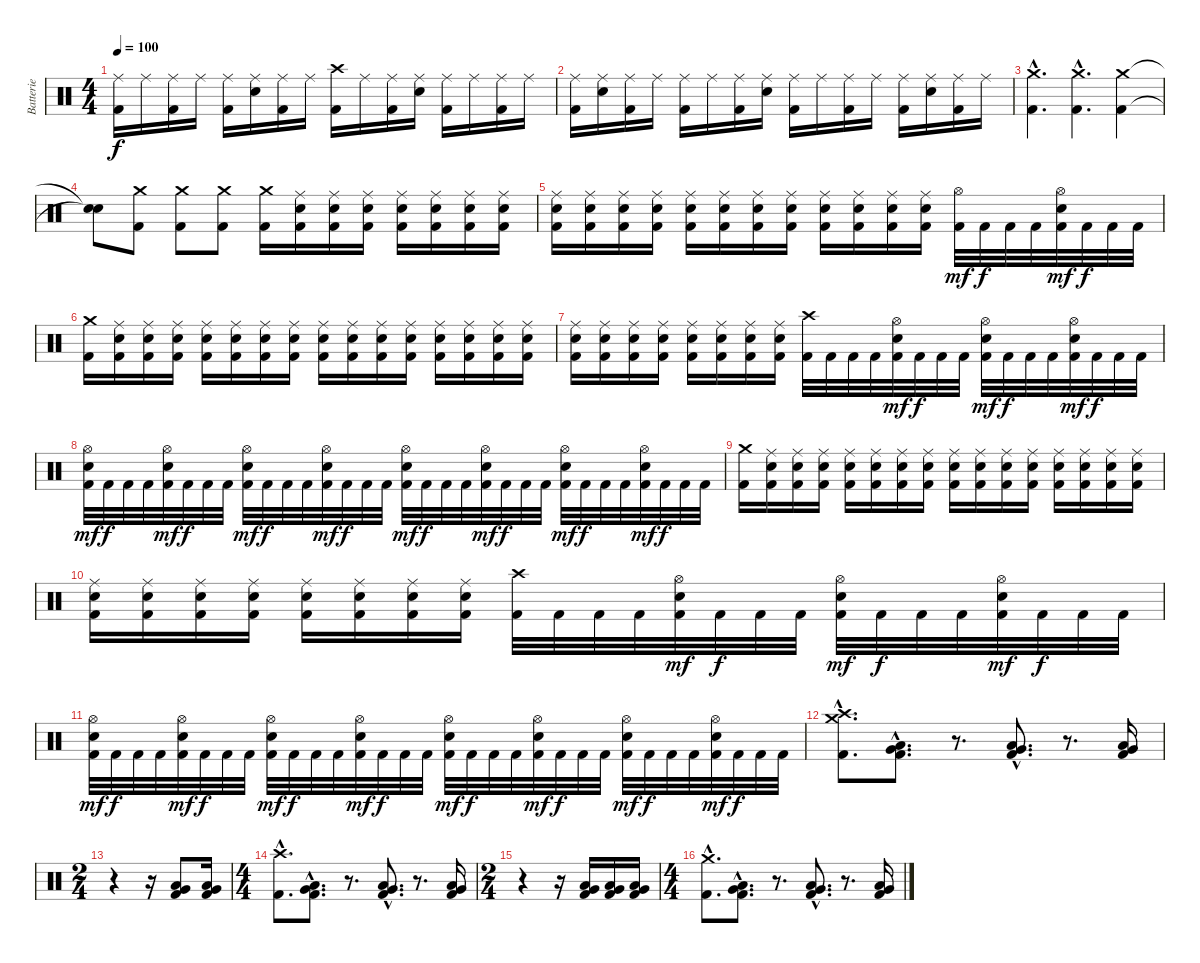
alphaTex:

\track ("Batterie" "Batterie") {instrument percussion}
\staff {score}
\articulation defaults
\ts (4 4)
\tempo 100
\clef neutral
\ks c
("Ride (middle)" "Kick (hit) 2").16{dy f} "Ride (middle)".16 ("Ride (middle)" "Kick (hit) 2").16 "Ride (middle)".16 ("Ride (middle)" "Kick (hit) 2").16 ("Ride (middle)" "Electric Snare (hit)").16 ("Ride (middle)" "Kick (hit) 2").16 "Ride (middle)".16 ("Crash high (hit)" "Kick (hit) 2").16 "Ride (middle)".16 ("Ride (middle)" "Kick (hit) 2").16 ("Ride (middle)" "Electric Snare (hit)").16 ("Ride (middle)" "Kick (hit) 2").16 "Ride (middle)".16 ("Ride (middle)" "Kick (hit) 2").16 "Ride (middle)".16 |
("Ride (middle)" "Kick (hit) 2").16 ("Ride (middle)" "Electric Snare (hit)").16 ("Ride (middle)" "Kick (hit) 2").16 "Ride (middle)".16 ("Ride (middle)" "Kick (hit) 2").16 "Ride (middle)".16 ("Ride (middle)" "Kick (hit) 2").16 ("Ride (middle)" "Electric Snare (hit)").16 ("Ride (middle)" "Kick (hit) 2").16 "Ride (middle)".16 ("Ride (middle)" "Kick (hit) 2").16 "Ride (middle)".16 ("Ride (middle)" "Kick (hit) 2").16 ("Ride (middle)" "Electric Snare (hit)").16 ("Ride (middle)" "Kick (hit) 2").16 "Ride (middle)".16 |
("Crash medium (hit)"{hac} "Kick (hit) 2"{hac}).4{d} ("Crash medium (hit)"{hac} "Kick (hit) 2"{hac}).4{d} ("Crash medium (hit)" "Kick (hit) 2").4 |
("Snare (hit)"{t} "Snare (hit)"{t}).8 ("Crash medium (hit)" "Kick (hit) 2").8 ("Crash medium (hit)" "Kick (hit) 2").8 ("Crash medium (hit)" "Kick (hit) 2").8 ("Crash medium (hit)" "Kick (hit) 2").16 ("Ride (middle)" "Electric Snare (hit)" "Kick (hit) 2").16 ("Ride (middle)" "Electric Snare (hit)" "Kick (hit) 2").16 ("Ride (middle)" "Electric Snare (hit)" "Kick (hit) 2").16 ("Ride (middle)" "Electric Snare (hit)" "Kick (hit) 2").16 ("Ride (middle)" "Electric Snare (hit)" "Kick (hit) 2").16 ("Ride (middle)" "Electric Snare (hit)" "Kick (hit) 2").16 ("Ride (middle)" "Electric Snare (hit)" "Kick (hit) 2").16 |
("Ride (middle)" "Electric Snare (hit)" "Kick (hit) 2").16 ("Ride (middle)" "Electric Snare (hit)" "Kick (hit) 2").16 ("Ride (middle)" "Electric Snare (hit)" "Kick (hit) 2").16 ("Ride (middle)" "Electric Snare (hit)" "Kick (hit) 2").16 ("Ride (middle)" "Electric Snare (hit)" "Kick (hit) 2").16 ("Ride (middle)" "Electric Snare (hit)" "Kick (hit) 2").16 ("Ride (middle)" "Electric Snare (hit)" "Kick (hit) 2").16 ("Ride (middle)" "Electric Snare (hit)" "Kick (hit) 2").16 ("Ride (middle)" "Electric Snare (hit)" "Kick (hit) 2").16 ("Ride (middle)" "Electric Snare (hit)" "Kick (hit) 2").16 ("Ride (middle)" "Electric Snare (hit)" "Kick (hit) 2").16 ("Ride (middle)" "Electric Snare (hit)" "Kick (hit) 2").16 ("Hi-Hat (open)" "Kick (hit) 2").32{dy mf} "Kick (hit) 2".32{dy f} "Kick (hit) 2".32 "Kick (hit) 2".32 ("Hi-Hat (open)" "Electric Snare (hit)" "Kick (hit) 2").32{dy mf} "Kick (hit) 2".32{dy f} "Kick (hit) 2".32 "Kick (hit) 2".32 |
("Crash medium (hit)" "Kick (hit) 2").16 ("Ride (middle)" "Electric Snare (hit)" "Kick (hit) 2").16 ("Ride (middle)" "Electric Snare (hit)" "Kick (hit) 2").16 ("Ride (middle)" "Electric Snare (hit)" "Kick (hit) 2").16 ("Ride (middle)" "Electric Snare (hit)" "Kick (hit) 2").16 ("Ride (middle)" "Electric Snare (hit)" "Kick (hit) 2").16 ("Ride (middle)" "Electric Snare (hit)" "Kick (hit) 2").16 ("Ride (middle)" "Electric Snare (hit)" "Kick (hit) 2").16 ("Ride (middle)" "Electric Snare (hit)" "Kick (hit) 2").16 ("Ride (middle)" "Electric Snare (hit)" "Kick (hit) 2").16 ("Ride (middle)" "Electric Snare (hit)" "Kick (hit) 2").16 ("Ride (middle)" "Electric Snare (hit)" "Kick (hit) 2").16 ("Ride (middle)" "Electric Snare (hit)" "Kick (hit) 2").16 ("Ride (middle)" "Electric Snare (hit)" "Kick (hit) 2").16 ("Ride (middle)" "Electric Snare (hit)" "Kick (hit) 2").16 ("Ride (middle)" "Electric Snare (hit)" "Kick (hit) 2").16 |
("Ride (middle)" "Electric Snare (hit)" "Kick (hit) 2").16 ("Ride (middle)" "Electric Snare (hit)" "Kick (hit) 2").16 ("Ride (middle)" "Electric Snare (hit)" "Kick (hit) 2").16 ("Ride (middle)" "Electric Snare (hit)" "Kick (hit) 2").16 ("Ride (middle)" "Electric Snare (hit)" "Kick (hit) 2").16 ("Ride (middle)" "Electric Snare (hit)" "Kick (hit) 2").16 ("Ride (middle)" "Electric Snare (hit)" "Kick (hit) 2").16 ("Ride (middle)" "Electric Snare (hit)" "Kick (hit) 2").16 ("Crash high (hit)" "Kick (hit) 2").32 "Kick (hit) 2".32 "Kick (hit) 2".32 "Kick (hit) 2".32 ("Hi-Hat (open)" "Electric Snare (hit)" "Kick (hit) 2").32{dy mf} "Kick (hit) 2".32{dy f} "Kick (hit) 2".32 "Kick (hit) 2".32 ("Hi-Hat (open)" "Electric Snare (hit)" "Kick (hit) 2").32{dy mf} "Kick (hit) 2".32{dy f} "Kick (hit) 2".32 "Kick (hit) 2".32 ("Hi-Hat (open)" "Electric Snare (hit)" "Kick (hit) 2").32{dy mf} "Kick (hit) 2".32{dy f} "Kick (hit) 2".32 "Kick (hit) 2".32 |
("Hi-Hat (open)" "Electric Snare (hit)" "Kick (hit) 2").32{dy mf} "Kick (hit) 2".32{dy f} "Kick (hit) 2".32 "Kick (hit) 2".32 ("Hi-Hat (open)" "Electric Snare (hit)" "Kick (hit) 2").32{dy mf} "Kick (hit) 2".32{dy f} "Kick (hit) 2".32 "Kick (hit) 2".32 ("Hi-Hat (open)" "Electric Snare (hit)" "Kick (hit) 2").32{dy mf} "Kick (hit) 2".32{dy f} "Kick (hit) 2".32 "Kick (hit) 2".32 ("Hi-Hat (open)" "Electric Snare (hit)" "Kick (hit) 2").32{dy mf} "Kick (hit) 2".32{dy f} "Kick (hit) 2".32 "Kick (hit) 2".32 ("Hi-Hat (open)" "Electric Snare (hit)" "Kick (hit) 2").32{dy mf} "Kick (hit) 2".32{dy f} "Kick (hit) 2".32 "Kick (hit) 2".32 ("Hi-Hat (open)" "Electric Snare (hit)" "Kick (hit) 2").32{dy mf} "Kick (hit) 2".32{dy f} "Kick (hit) 2".32 "Kick (hit) 2".32 ("Hi-Hat (open)" "Electric Snare (hit)" "Kick (hit) 2").32{dy mf} "Kick (hit) 2".32{dy f} "Kick (hit) 2".32 "Kick (hit) 2".32 ("Hi-Hat (open)" "Electric Snare (hit)" "Kick (hit) 2").32{dy mf} "Kick (hit) 2".32{dy f} "Kick (hit) 2".32 "Kick (hit) 2".32 |
("Crash medium (hit)" "Kick (hit) 2").16 ("Ride (middle)" "Electric Snare (hit)" "Kick (hit) 2").16 ("Ride (middle)" "Electric Snare (hit)" "Kick (hit) 2").16 ("Ride (middle)" "Electric Snare (hit)" "Kick (hit) 2").16 ("Ride (middle)" "Electric Snare (hit)" "Kick (hit) 2").16 ("Ride (middle)" "Electric Snare (hit)" "Kick (hit) 2").16 ("Ride (middle)" "Electric Snare (hit)" "Kick (hit) 2").16 ("Ride (middle)" "Electric Snare (hit)" "Kick (hit) 2").16 ("Ride (middle)" "Electric Snare (hit)" "Kick (hit) 2").16 ("Ride (middle)" "Electric Snare (hit)" "Kick (hit) 2").16 ("Ride (middle)" "Electric Snare (hit)" "Kick (hit) 2").16 ("Ride (middle)" "Electric Snare (hit)" "Kick (hit) 2").16 ("Ride (middle)" "Electric Snare (hit)" "Kick (hit) 2").16 ("Ride (middle)" "Electric Snare (hit)" "Kick (hit) 2").16 ("Ride (middle)" "Electric Snare (hit)" "Kick (hit) 2").16 ("Ride (middle)" "Electric Snare (hit)" "Kick (hit) 2").16 |
("Ride (middle)" "Electric Snare (hit)" "Kick (hit) 2").16 ("Ride (middle)" "Electric Snare (hit)" "Kick (hit) 2").16 ("Ride (middle)" "Electric Snare (hit)" "Kick (hit) 2").16 ("Ride (middle)" "Electric Snare (hit)" "Kick (hit) 2").16 ("Ride (middle)" "Electric Snare (hit)" "Kick (hit) 2").16 ("Ride (middle)" "Electric Snare (hit)" "Kick (hit) 2").16 ("Ride (middle)" "Electric Snare (hit)" "Kick (hit) 2").16 ("Ride (middle)" "Electric Snare (hit)" "Kick (hit) 2").16 ("Crash high (hit)" "Kick (hit) 2").32 "Kick (hit) 2".32 "Kick (hit) 2".32 "Kick (hit) 2".32 ("Hi-Hat (open)" "Electric Snare (hit)" "Kick (hit) 2").32{dy mf} "Kick (hit) 2".32{dy f} "Kick (hit) 2".32 "Kick (hit) 2".32 ("Hi-Hat (open)" "Electric Snare (hit)" "Kick (hit) 2").32{dy mf} "Kick (hit) 2".32{dy f} "Kick (hit) 2".32 "Kick (hit) 2".32 ("Hi-Hat (open)" "Electric Snare (hit)" "Kick (hit) 2").32{dy mf} "Kick (hit) 2".32{dy f} "Kick (hit) 2".32 "Kick (hit) 2".32 |
("Hi-Hat (open)" "Electric Snare (hit)" "Kick (hit) 2").32{dy mf} "Kick (hit) 2".32{dy f} "Kick (hit) 2".32 "Kick (hit) 2".32 ("Hi-Hat (open)" "Electric Snare (hit)" "Kick (hit) 2").32{dy mf} "Kick (hit) 2".32{dy f} "Kick (hit) 2".32 "Kick (hit) 2".32 ("Hi-Hat (open)" "Electric Snare (hit)" "Kick (hit) 2").32{dy mf} "Kick (hit) 2".32{dy f} "Kick (hit) 2".32 "Kick (hit) 2".32 ("Hi-Hat (open)" "Electric Snare (hit)" "Kick (hit) 2").32{dy mf} "Kick (hit) 2".32{dy f} "Kick (hit) 2".32 "Kick (hit) 2".32 ("Hi-Hat (open)" "Electric Snare (hit)" "Kick (hit) 2").32{dy mf} "Kick (hit) 2".32{dy f} "Kick (hit) 2".32 "Kick (hit) 2".32 ("Hi-Hat (open)" "Electric Snare (hit)" "Kick (hit) 2").32{dy mf} "Kick (hit) 2".32{dy f} "Kick (hit) 2".32 "Kick (hit) 2".32 ("Hi-Hat (open)" "Electric Snare (hit)" "Kick (hit) 2").32{dy mf} "Kick (hit) 2".32{dy f} "Kick (hit) 2".32 "Kick (hit) 2".32 ("Hi-Hat (open)" "Electric Snare (hit)" "Kick (hit) 2").32{dy mf} "Kick (hit) 2".32{dy f} "Kick (hit) 2".32 "Kick (hit) 2".32 |
("Crash medium (hit)"{hac} "Crash high (hit)"{hac} "Kick (hit) 2"{hac}).8{d} ("Very Low Tom (hit)"{hac} "Low Floor Tom (hit)"{hac} "Kick (hit) 2"{hac}).8{d} r.8{d} ("Very Low Tom (hit)"{hac} "Low Floor Tom (hit)"{hac} "Kick (hit) 2"{hac}).8{d} r.8{d} ("Very Low Tom (hit)" "Low Floor Tom (hit)" "Kick (hit) 2").16 |
\ts (2 4)
r.4 r.16 ("Very Low Tom (hit)" "Low Floor Tom (hit)" "Kick (hit) 2").8 ("Very Low Tom (hit)" "Low Floor Tom (hit)" "Kick (hit) 2").16 |
\ts (4 4)
("Crash high (hit)"{hac} "Kick (hit) 2"{hac}).8{d} ("Very Low Tom (hit)"{hac} "Low Floor Tom (hit)"{hac} "Kick (hit) 2"{hac}).8{d} r.8{d} ("Very Low Tom (hit)"{hac} "Low Floor Tom (hit)"{hac} "Kick (hit) 2"{hac}).8{d} r.8{d} ("Very Low Tom (hit)" "Low Floor Tom (hit)" "Kick (hit) 2").16 |
\ts (2 4)
r.4 r.16 ("Very Low Tom (hit)" "Low Floor Tom (hit)" "Kick (hit) 2").16 ("Very Low Tom (hit)" "Low Floor Tom (hit)" "Kick (hit) 2").16 ("Very Low Tom (hit)" "Low Floor Tom (hit)" "Kick (hit) 2").16 |
\ts (4 4)
("Crash medium (hit)"{hac} "Kick (hit) 2"{hac}).8{d} ("Very Low Tom (hit)"{hac} "Low Floor Tom (hit)"{hac} "Kick (hit) 2"{hac}).8{d} r.8{d} ("Very Low Tom (hit)"{hac} "Low Floor Tom (hit)"{hac} "Kick (hit) 2"{hac}).8{d} r.8{d} ("Very Low Tom (hit)" "Low Floor Tom (hit)" "Kick (hit) 2").16
